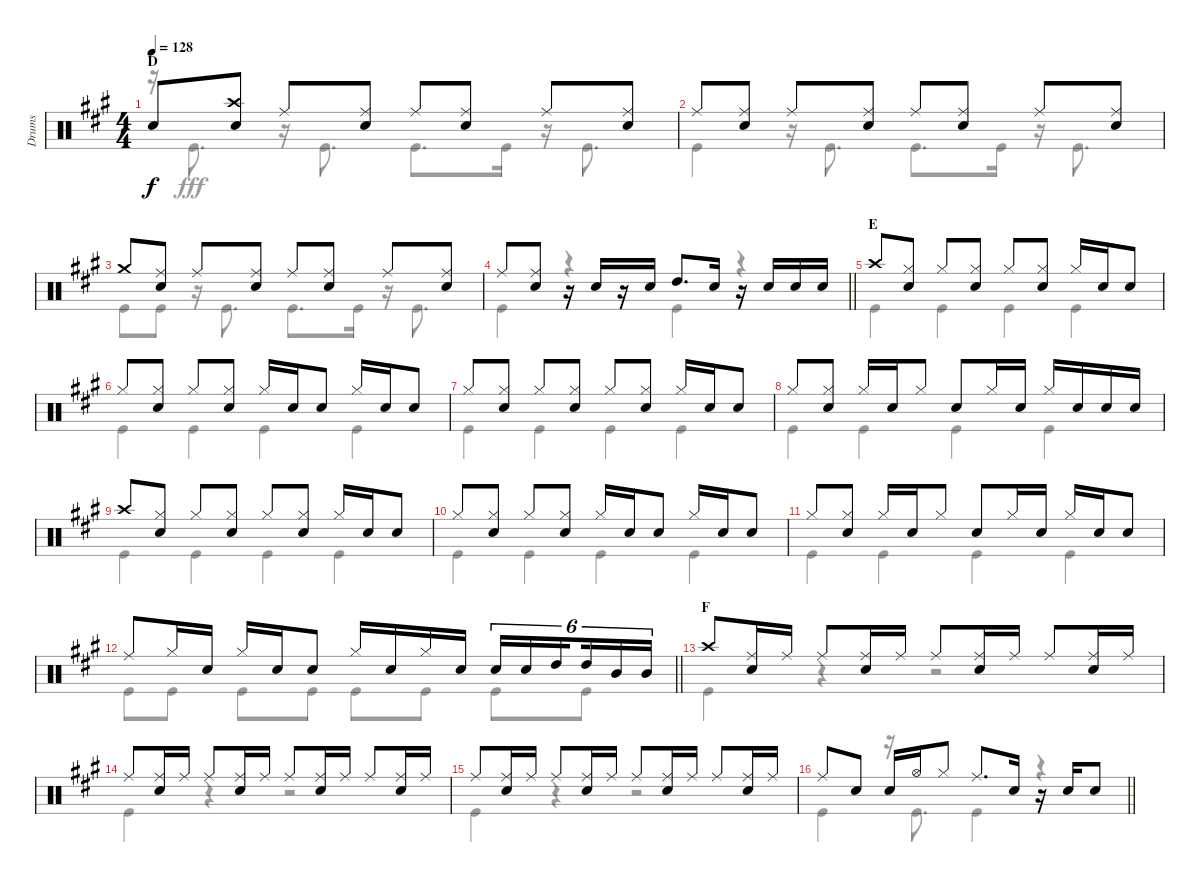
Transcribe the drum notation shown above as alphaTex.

\track ("Drums" "Drums") {instrument percussion}
\staff {score}
\articulation defaults
\voice
\ts (4 4)
\section ("" "D")
\tempo 128
\clef neutral
\ks a "Snare (hit) 2".8{dy f}
("Crash high (hit)" "Snare (hit) 2").8 "Ride (middle)".8 ("Ride (middle)" "Snare (hit) 2").8 "Ride (middle)".8 ("Ride (middle)" "Snare (hit) 2").8 "Ride (middle)".8 ("Ride (middle)" "Snare (hit) 2").8 |
"Ride (middle)".8 ("Ride (middle)" "Snare (hit) 2").8 "Ride (middle)".8 ("Ride (middle)" "Snare (hit) 2").8 "Ride (middle)".8 ("Ride (middle)" "Snare (hit) 2").8 "Ride (middle)".8 ("Ride (middle)" "Snare (hit) 2").8 |
"Crash medium (hit)".8 ("Ride (middle)" "Snare (hit) 2").8 "Ride (middle)".8 ("Ride (middle)" "Snare (hit) 2").8 "Ride (middle)".8 ("Ride (middle)" "Snare (hit) 2").8 "Ride (middle)".8 ("Ride (middle)" "Snare (hit) 2").8 |
\barLineRight lightlight "Ride (middle)".8
("Ride (middle)" "Snare (hit) 2").8 r.16 "Snare (hit) 2".16 r.16 "Snare (hit) 2".16 "High Tom (hit)".8{d} "Snare (hit) 2".16 r.16 "Snare (hit) 2".16 "Snare (hit) 2".16 "Snare (hit) 2".16 |
\section ("" "E")
"Crash high (hit)".8 ("Hi-Hat (closed)" "Snare (hit) 2").8 "Hi-Hat (closed)".8 ("Hi-Hat (closed)" "Snare (hit) 2").8 "Hi-Hat (closed)".8 ("Hi-Hat (closed)" "Snare (hit) 2").8 "Hi-Hat (closed)".16 "Snare (hit) 2".16 "Snare (hit) 2".8 |
"Hi-Hat (closed)".8 ("Hi-Hat (closed)" "Snare (hit) 2").8 "Hi-Hat (closed)".8 ("Hi-Hat (closed)" "Snare (hit) 2").8 "Hi-Hat (closed)".16 "Snare (hit) 2".16 "Snare (hit) 2".8 "Hi-Hat (closed)".16 "Snare (hit) 2".16 "Snare (hit) 2".8 |
"Hi-Hat (closed)".8 ("Hi-Hat (closed)" "Snare (hit) 2").8 "Hi-Hat (closed)".8 ("Hi-Hat (closed)" "Snare (hit) 2").8 "Hi-Hat (closed)".8 ("Hi-Hat (closed)" "Snare (hit) 2").8 "Hi-Hat (closed)".16 "Snare (hit) 2".16 "Snare (hit) 2".8 |
"Hi-Hat (closed)".8 ("Hi-Hat (closed)" "Snare (hit) 2").8 "Hi-Hat (closed)".16 "Snare (hit) 2".16 "Hi-Hat (closed)".8 "Snare (hit) 2".8 "Hi-Hat (closed)".16 "Snare (hit) 2".16 "Hi-Hat (closed)".16 "Snare (hit) 2".16 "Snare (hit) 2".16 "Snare (hit) 2".16 |
"Crash high (hit)".8 ("Hi-Hat (closed)" "Snare (hit) 2").8 "Hi-Hat (closed)".8 ("Hi-Hat (closed)" "Snare (hit) 2").8 "Hi-Hat (closed)".8 ("Hi-Hat (closed)" "Snare (hit) 2").8 "Hi-Hat (closed)".16 "Snare (hit) 2".16 "Snare (hit) 2".8 |
"Hi-Hat (closed)".8 ("Hi-Hat (closed)" "Snare (hit) 2").8 "Hi-Hat (closed)".8 ("Hi-Hat (closed)" "Snare (hit) 2").8 "Hi-Hat (closed)".16 "Snare (hit) 2".16 "Snare (hit) 2".8 "Hi-Hat (closed)".16 "Snare (hit) 2".16 "Snare (hit) 2".8 |
"Hi-Hat (closed)".8 ("Hi-Hat (closed)" "Snare (hit) 2").8 "Hi-Hat (closed)".16 "Snare (hit) 2".16 "Hi-Hat (closed)".8 "Snare (hit) 2".8 "Hi-Hat (closed)".16 "Snare (hit) 2".16 "Hi-Hat (closed)".16 "Snare (hit) 2".16 "Snare (hit) 2".8 |
\barLineRight lightlight "Ride (middle)".8 "Hi-Hat (closed)".16 "Snare (hit) 2".16 "Hi-Hat (closed)".16 "Snare (hit) 2".16 "Snare (hit) 2".8 "Hi-Hat (closed)".16 "Snare (hit) 2".16 "Hi-Hat (closed)".16 "Snare (hit) 2".16 "Snare (hit) 2".16{tu (6 4)} "Snare (hit) 2".16{tu (6 4)} "High Tom (hit)".16{tu (6 4) beam splitsecondary} "High Tom (hit)".16{tu (6 4)} "Mid Tom (hit)".16{tu (6 4)} "Mid Tom (hit)".16{tu (6 4)}
|
\section ("" "F")
"Crash high (hit)".8 ("Ride (middle)" "Snare (hit) 2").16 "Ride (middle)".16 "Ride (middle)".8 ("Ride (middle)" "Snare (hit) 2").16 "Ride (middle)".16 "Ride (middle)".8 ("Ride (middle)" "Snare (hit) 2").16 "Ride (middle)".16 "Ride (middle)".8 ("Ride (middle)" "Snare (hit) 2").16 "Ride (middle)".16 |
"Ride (middle)".8 ("Ride (middle)" "Snare (hit) 2").16 "Ride (middle)".16 "Ride (middle)".8 ("Ride (middle)" "Snare (hit) 2").16 "Ride (middle)".16 "Ride (middle)".8 ("Ride (middle)" "Snare (hit) 2").16 "Ride (middle)".16 "Ride (middle)".8 ("Ride (middle)" "Snare (hit) 2").16 "Ride (middle)".16 |
"Ride (middle)".8 ("Ride (middle)" "Snare (hit) 2").16 "Ride (middle)".16 "Ride (middle)".8 ("Ride (middle)" "Snare (hit) 2").16 "Ride (middle)".16 "Ride (middle)".8 ("Ride (middle)" "Snare (hit) 2").16 "Ride (middle)".16 "Ride (middle)".8 ("Ride (middle)" "Snare (hit) 2").16 "Ride (middle)".16 |
\barLineRight lightlight "Ride (middle)".8 "Snare (hit) 2".8 "Snare (hit) 2".16 "Hi-Hat (open)".16 "Hi-Hat (closed)".8 "Ride (middle)".8{d} "Snare (hit) 2".16
r.16 "Snare (hit) 2".16 "Snare (hit) 2".8
\voice
\clef neutral
\ottava regular
\simile none
\ks a
r.16{dy fff} "Kick (hit)".8{d} r.16 "Kick (hit)".8{d} "Kick (hit)".8{d} "Kick (hit)".16 r.16 "Kick (hit)".8{d} |
"Kick (hit)".4 r.16 "Kick (hit)".8{d} "Kick (hit)".8{d} "Kick (hit)".16 r.16 "Kick (hit)".8{d} |
"Kick (hit)".8 "Kick (hit)".8 r.16 "Kick (hit)".8{d} "Kick (hit)".8{d} "Kick (hit)".16 r.16 "Kick (hit)".8{d} |
\barLineRight lightlight "Kick (hit)".4
r.4 "Kick (hit)".4 r.4 |
"Kick (hit)".4 "Kick (hit)".4 "Kick (hit)".4 "Kick (hit)".4 |
"Kick (hit)".4 "Kick (hit)".4 "Kick (hit)".4 "Kick (hit)".4 |
"Kick (hit)".4 "Kick (hit)".4 "Kick (hit)".4 "Kick (hit)".4 |
"Kick (hit)".4 "Kick (hit)".4 "Kick (hit)".4 "Kick (hit)".4 |
"Kick (hit)".4 "Kick (hit)".4 "Kick (hit)".4 "Kick (hit)".4 |
"Kick (hit)".4 "Kick (hit)".4 "Kick (hit)".4 "Kick (hit)".4 |
"Kick (hit)".4 "Kick (hit)".4 "Kick (hit)".4 "Kick (hit)".4 |
\barLineRight lightlight "Kick (hit)".8 "Kick (hit)".8 "Kick (hit)".8 "Kick (hit)".8 "Kick (hit)".8 "Kick (hit)".8 "Kick (hit)".8 "Kick (hit)".8
|
"Kick (hit)".4 r.4 r.2 |
"Kick (hit)".4 r.4 r.2 |
"Kick (hit)".4 r.4 r.2 |
\barLineRight lightlight "Kick (hit)".4
r.16 "Kick (hit)".8{d} "Kick (hit)".4 r.4
